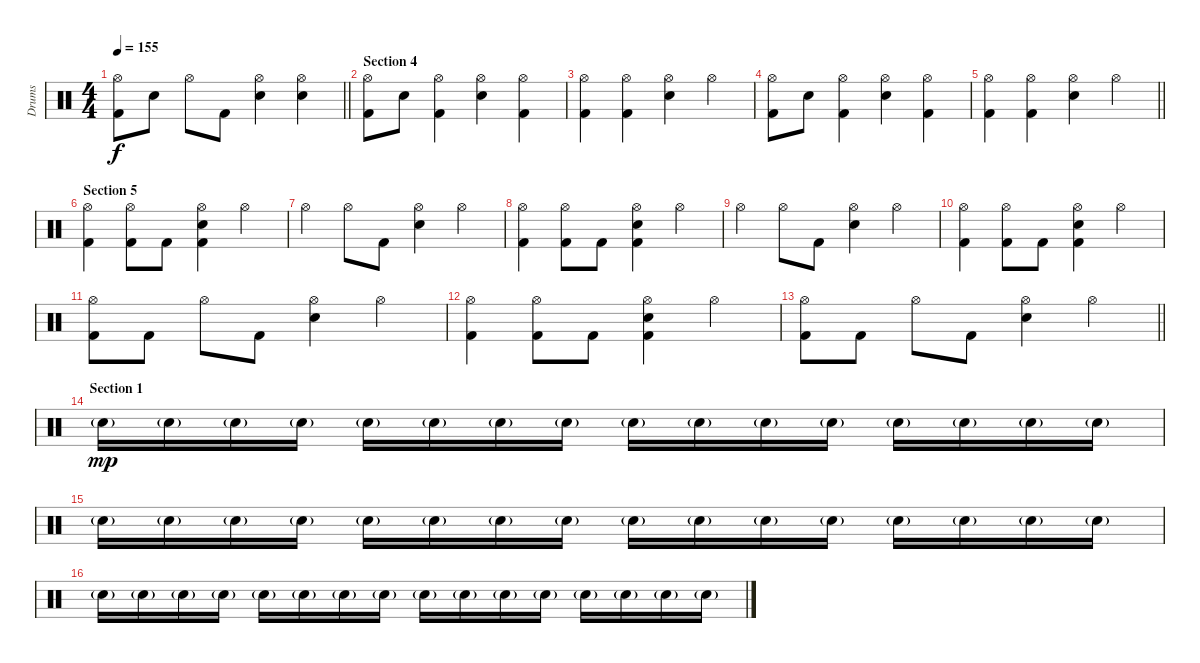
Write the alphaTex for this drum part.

\track ("Drums" "Drums") {instrument percussion}
\staff {score}
\articulation defaults
\ts (4 4)
\tempo 155
\clef neutral
\barLineRight lightlight
\ks c
("Hi-Hat (open)" "Kick (hit) 2").8{dy f} "Snare (hit) 2".8 "Hi-Hat (open)".8 "Kick (hit) 2".8 ("Hi-Hat (open)" "Snare (hit) 2").4 ("Hi-Hat (open)" "Snare (hit) 2").4 |
\section ("" "Section 4")
("Hi-Hat (open)" "Kick (hit) 2").8 "Snare (hit) 2".8 ("Hi-Hat (open)" "Kick (hit) 2").4 ("Hi-Hat (open)" "Snare (hit) 2").4 ("Hi-Hat (open)" "Kick (hit) 2").4 |
("Hi-Hat (open)" "Kick (hit) 2").4 ("Hi-Hat (open)" "Kick (hit) 2").4 ("Hi-Hat (open)" "Snare (hit) 2").4 "Hi-Hat (open)".4 |
("Hi-Hat (open)" "Kick (hit) 2").8 "Snare (hit) 2".8 ("Hi-Hat (open)" "Kick (hit) 2").4 ("Hi-Hat (open)" "Snare (hit) 2").4 ("Hi-Hat (open)" "Kick (hit) 2").4 |
\barLineRight lightlight
("Hi-Hat (open)" "Kick (hit) 2").4 ("Hi-Hat (open)" "Kick (hit) 2").4 ("Hi-Hat (open)" "Snare (hit) 2").4 "Hi-Hat (open)".4 |
\section ("" "Section 5")
("Hi-Hat (open)" "Kick (hit) 2").4 ("Hi-Hat (open)" "Kick (hit) 2").8 "Kick (hit) 2".8 ("Hi-Hat (open)" "Snare (hit) 2" "Kick (hit) 2").4 "Hi-Hat (open)".4 |
"Hi-Hat (open)".4 "Hi-Hat (open)".8 "Kick (hit) 2".8 ("Hi-Hat (open)" "Snare (hit) 2").4 "Hi-Hat (open)".4 |
("Hi-Hat (open)" "Kick (hit) 2").4 ("Hi-Hat (open)" "Kick (hit) 2").8 "Kick (hit) 2".8 ("Hi-Hat (open)" "Snare (hit) 2" "Kick (hit) 2").4 "Hi-Hat (open)".4 |
"Hi-Hat (open)".4 "Hi-Hat (open)".8 "Kick (hit) 2".8 ("Hi-Hat (open)" "Snare (hit) 2").4 "Hi-Hat (open)".4 |
("Hi-Hat (open)" "Kick (hit) 2").4 ("Hi-Hat (open)" "Kick (hit) 2").8 "Kick (hit) 2".8 ("Hi-Hat (open)" "Snare (hit) 2" "Kick (hit) 2").4 "Hi-Hat (open)".4 |
("Hi-Hat (open)" "Kick (hit) 2").8 "Kick (hit) 2".8 "Hi-Hat (open)".8 "Kick (hit) 2".8 ("Hi-Hat (open)" "Snare (hit) 2").4 "Hi-Hat (open)".4 |
("Hi-Hat (open)" "Kick (hit) 2").4 ("Hi-Hat (open)" "Kick (hit) 2").8 "Kick (hit) 2".8 ("Hi-Hat (open)" "Snare (hit) 2" "Kick (hit) 2").4 "Hi-Hat (open)".4 |
\barLineRight lightlight
("Hi-Hat (open)" "Kick (hit) 2").8 "Kick (hit) 2".8 "Hi-Hat (open)".8 "Kick (hit) 2".8 ("Hi-Hat (open)" "Snare (hit) 2").4 "Hi-Hat (open)".4 |
\section ("" "Section 1")
"Snare (hit) 2"{g}.16{dy mp} "Snare (hit) 2"{g}.16 "Snare (hit) 2"{g}.16 "Snare (hit) 2"{g}.16 "Snare (hit) 2"{g}.16 "Snare (hit) 2"{g}.16 "Snare (hit) 2"{g}.16 "Snare (hit) 2"{g}.16 "Snare (hit) 2"{g}.16 "Snare (hit) 2"{g}.16 "Snare (hit) 2"{g}.16 "Snare (hit) 2"{g}.16 "Snare (hit) 2"{g}.16 "Snare (hit) 2"{g}.16 "Snare (hit) 2"{g}.16 "Snare (hit) 2"{g}.16 |
"Snare (hit) 2"{g}.16 "Snare (hit) 2"{g}.16 "Snare (hit) 2"{g}.16 "Snare (hit) 2"{g}.16 "Snare (hit) 2"{g}.16 "Snare (hit) 2"{g}.16 "Snare (hit) 2"{g}.16 "Snare (hit) 2"{g}.16 "Snare (hit) 2"{g}.16 "Snare (hit) 2"{g}.16 "Snare (hit) 2"{g}.16 "Snare (hit) 2"{g}.16 "Snare (hit) 2"{g}.16 "Snare (hit) 2"{g}.16 "Snare (hit) 2"{g}.16 "Snare (hit) 2"{g}.16 |
"Snare (hit) 2"{g}.16 "Snare (hit) 2"{g}.16 "Snare (hit) 2"{g}.16 "Snare (hit) 2"{g}.16 "Snare (hit) 2"{g}.16 "Snare (hit) 2"{g}.16 "Snare (hit) 2"{g}.16 "Snare (hit) 2"{g}.16 "Snare (hit) 2"{g}.16 "Snare (hit) 2"{g}.16 "Snare (hit) 2"{g}.16 "Snare (hit) 2"{g}.16 "Snare (hit) 2"{g}.16 "Snare (hit) 2"{g}.16 "Snare (hit) 2"{g}.16 "Snare (hit) 2"{g}.16
